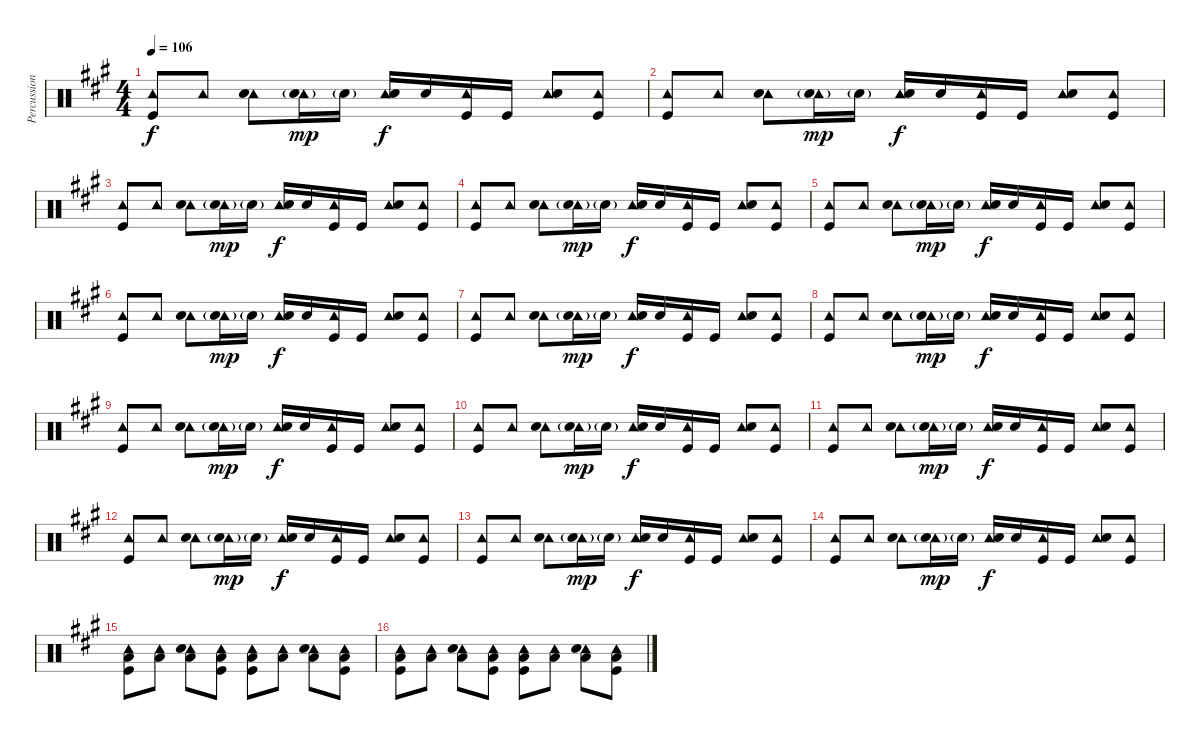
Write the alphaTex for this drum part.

\track ("Percussion" "Percussion") {instrument percussion}
\staff {score}
\articulation defaults
\ts (4 4)
\tempo 106
\clef neutral
\ks f#minor
("Tambourine (hit)" "Kick (hit)").8{dy f} "Tambourine (hit)".8 ("Tambourine (hit)" "Snare (hit) 2").8 ("Tambourine (hit)" "Snare (hit) 2"{g}).16{dy mp} "Snare (hit) 2"{g}.16 ("Tambourine (hit)" "Snare (hit) 2").16{dy f} "Snare (hit) 2".16 ("Tambourine (hit)" "Kick (hit)").16 "Kick (hit)".16 ("Tambourine (hit)" "Snare (hit) 2").8 ("Tambourine (hit)" "Kick (hit)").8 |
("Tambourine (hit)" "Kick (hit)").8 "Tambourine (hit)".8 ("Tambourine (hit)" "Snare (hit) 2").8 ("Tambourine (hit)" "Snare (hit) 2"{g}).16{dy mp} "Snare (hit) 2"{g}.16 ("Tambourine (hit)" "Snare (hit) 2").16{dy f} "Snare (hit) 2".16 ("Tambourine (hit)" "Kick (hit)").16 "Kick (hit)".16 ("Tambourine (hit)" "Snare (hit) 2").8 ("Tambourine (hit)" "Kick (hit)").8 |
("Tambourine (hit)" "Kick (hit)").8 "Tambourine (hit)".8 ("Tambourine (hit)" "Snare (hit) 2").8 ("Tambourine (hit)" "Snare (hit) 2"{g}).16{dy mp} "Snare (hit) 2"{g}.16 ("Tambourine (hit)" "Snare (hit) 2").16{dy f} "Snare (hit) 2".16 ("Tambourine (hit)" "Kick (hit)").16 "Kick (hit)".16 ("Tambourine (hit)" "Snare (hit) 2").8 ("Tambourine (hit)" "Kick (hit)").8 |
("Tambourine (hit)" "Kick (hit)").8 "Tambourine (hit)".8 ("Tambourine (hit)" "Snare (hit) 2").8 ("Tambourine (hit)" "Snare (hit) 2"{g}).16{dy mp} "Snare (hit) 2"{g}.16 ("Tambourine (hit)" "Snare (hit) 2").16{dy f} "Snare (hit) 2".16 ("Tambourine (hit)" "Kick (hit)").16 "Kick (hit)".16 ("Tambourine (hit)" "Snare (hit) 2").8 ("Tambourine (hit)" "Kick (hit)").8 |
("Tambourine (hit)" "Kick (hit)").8 "Tambourine (hit)".8 ("Tambourine (hit)" "Snare (hit) 2").8 ("Tambourine (hit)" "Snare (hit) 2"{g}).16{dy mp} "Snare (hit) 2"{g}.16 ("Tambourine (hit)" "Snare (hit) 2").16{dy f} "Snare (hit) 2".16 ("Tambourine (hit)" "Kick (hit)").16 "Kick (hit)".16 ("Tambourine (hit)" "Snare (hit) 2").8 ("Tambourine (hit)" "Kick (hit)").8 |
("Tambourine (hit)" "Kick (hit)").8 "Tambourine (hit)".8 ("Tambourine (hit)" "Snare (hit) 2").8 ("Tambourine (hit)" "Snare (hit) 2"{g}).16{dy mp} "Snare (hit) 2"{g}.16 ("Tambourine (hit)" "Snare (hit) 2").16{dy f} "Snare (hit) 2".16 ("Tambourine (hit)" "Kick (hit)").16 "Kick (hit)".16 ("Tambourine (hit)" "Snare (hit) 2").8 ("Tambourine (hit)" "Kick (hit)").8 |
("Tambourine (hit)" "Kick (hit)").8 "Tambourine (hit)".8 ("Tambourine (hit)" "Snare (hit) 2").8 ("Tambourine (hit)" "Snare (hit) 2"{g}).16{dy mp} "Snare (hit) 2"{g}.16 ("Tambourine (hit)" "Snare (hit) 2").16{dy f} "Snare (hit) 2".16 ("Tambourine (hit)" "Kick (hit)").16 "Kick (hit)".16 ("Tambourine (hit)" "Snare (hit) 2").8 ("Tambourine (hit)" "Kick (hit)").8 |
("Tambourine (hit)" "Kick (hit)").8 "Tambourine (hit)".8 ("Tambourine (hit)" "Snare (hit) 2").8 ("Tambourine (hit)" "Snare (hit) 2"{g}).16{dy mp} "Snare (hit) 2"{g}.16 ("Tambourine (hit)" "Snare (hit) 2").16{dy f} "Snare (hit) 2".16 ("Tambourine (hit)" "Kick (hit)").16 "Kick (hit)".16 ("Tambourine (hit)" "Snare (hit) 2").8 ("Tambourine (hit)" "Kick (hit)").8 |
("Tambourine (hit)" "Kick (hit)").8 "Tambourine (hit)".8 ("Tambourine (hit)" "Snare (hit) 2").8 ("Tambourine (hit)" "Snare (hit) 2"{g}).16{dy mp} "Snare (hit) 2"{g}.16 ("Tambourine (hit)" "Snare (hit) 2").16{dy f} "Snare (hit) 2".16 ("Tambourine (hit)" "Kick (hit)").16 "Kick (hit)".16 ("Tambourine (hit)" "Snare (hit) 2").8 ("Tambourine (hit)" "Kick (hit)").8 |
("Tambourine (hit)" "Kick (hit)").8 "Tambourine (hit)".8 ("Tambourine (hit)" "Snare (hit) 2").8 ("Tambourine (hit)" "Snare (hit) 2"{g}).16{dy mp} "Snare (hit) 2"{g}.16 ("Tambourine (hit)" "Snare (hit) 2").16{dy f} "Snare (hit) 2".16 ("Tambourine (hit)" "Kick (hit)").16 "Kick (hit)".16 ("Tambourine (hit)" "Snare (hit) 2").8 ("Tambourine (hit)" "Kick (hit)").8 |
("Tambourine (hit)" "Kick (hit)").8 "Tambourine (hit)".8 ("Tambourine (hit)" "Snare (hit) 2").8 ("Tambourine (hit)" "Snare (hit) 2"{g}).16{dy mp} "Snare (hit) 2"{g}.16 ("Tambourine (hit)" "Snare (hit) 2").16{dy f} "Snare (hit) 2".16 ("Tambourine (hit)" "Kick (hit)").16 "Kick (hit)".16 ("Tambourine (hit)" "Snare (hit) 2").8 ("Tambourine (hit)" "Kick (hit)").8 |
("Tambourine (hit)" "Kick (hit)").8 "Tambourine (hit)".8 ("Tambourine (hit)" "Snare (hit) 2").8 ("Tambourine (hit)" "Snare (hit) 2"{g}).16{dy mp} "Snare (hit) 2"{g}.16 ("Tambourine (hit)" "Snare (hit) 2").16{dy f} "Snare (hit) 2".16 ("Tambourine (hit)" "Kick (hit)").16 "Kick (hit)".16 ("Tambourine (hit)" "Snare (hit) 2").8 ("Tambourine (hit)" "Kick (hit)").8 |
("Tambourine (hit)" "Kick (hit)").8 "Tambourine (hit)".8 ("Tambourine (hit)" "Snare (hit) 2").8 ("Tambourine (hit)" "Snare (hit) 2"{g}).16{dy mp} "Snare (hit) 2"{g}.16 ("Tambourine (hit)" "Snare (hit) 2").16{dy f} "Snare (hit) 2".16 ("Tambourine (hit)" "Kick (hit)").16 "Kick (hit)".16 ("Tambourine (hit)" "Snare (hit) 2").8 ("Tambourine (hit)" "Kick (hit)").8 |
("Tambourine (hit)" "Kick (hit)").8 "Tambourine (hit)".8 ("Tambourine (hit)" "Snare (hit) 2").8 ("Tambourine (hit)" "Snare (hit) 2"{g}).16{dy mp} "Snare (hit) 2"{g}.16 ("Tambourine (hit)" "Snare (hit) 2").16{dy f} "Snare (hit) 2".16 ("Tambourine (hit)" "Kick (hit)").16 "Kick (hit)".16 ("Tambourine (hit)" "Snare (hit) 2").8 ("Tambourine (hit)" "Kick (hit)").8 |
("Tambourine (hit)" "Low Floor Tom (hit)" "Kick (hit)").8 ("Tambourine (hit)" "Low Floor Tom (hit)").8 ("Tambourine (hit)" "Low Floor Tom (hit)" "Snare (hit) 2").8 ("Tambourine (hit)" "Low Floor Tom (hit)" "Kick (hit)").8 ("Tambourine (hit)" "Low Floor Tom (hit)" "Kick (hit)").8 ("Tambourine (hit)" "Low Floor Tom (hit)").8 ("Tambourine (hit)" "Low Floor Tom (hit)" "Snare (hit) 2").8 ("Tambourine (hit)" "Low Floor Tom (hit)" "Kick (hit)").8 |
("Tambourine (hit)" "Low Floor Tom (hit)" "Kick (hit)").8 ("Tambourine (hit)" "Low Floor Tom (hit)").8 ("Tambourine (hit)" "Low Floor Tom (hit)" "Snare (hit) 2").8 ("Tambourine (hit)" "Low Floor Tom (hit)" "Kick (hit)").8 ("Tambourine (hit)" "Low Floor Tom (hit)" "Kick (hit)").8 ("Tambourine (hit)" "Low Floor Tom (hit)").8 ("Tambourine (hit)" "Low Floor Tom (hit)" "Snare (hit) 2").8 ("Tambourine (hit)" "Low Floor Tom (hit)" "Kick (hit)").8
